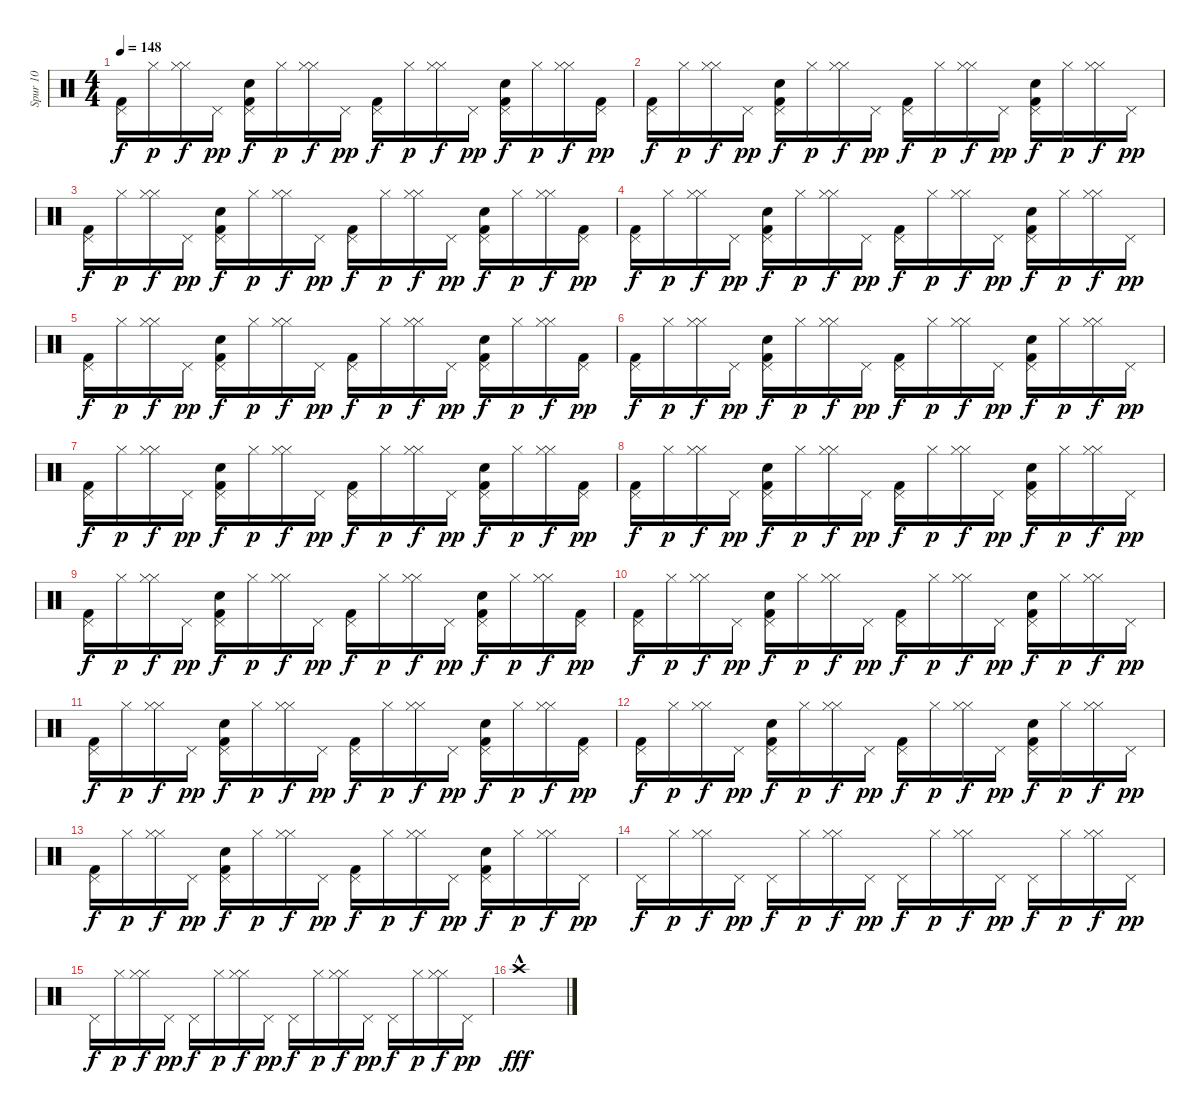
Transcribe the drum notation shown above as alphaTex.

\track ("Spur 10" "Spur 10") {instrument percussion}
\staff {score}
\articulation defaults
\ts (4 4)
\tempo 148
\clef neutral
\ks c
("Pedal Hi-Hat (hit)" "Kick (hit) 2").16{dy f} "Hi-Hat (closed)".16{dy p} ("Hi-Hat (closed)" "Hi-Hat (closed)").16{dy f} "Pedal Hi-Hat (hit)".16{dy pp} ("Pedal Hi-Hat (hit)" "Kick (hit) 2" "Snare (hit) 2").16{dy f} "Hi-Hat (closed)".16{dy p} ("Hi-Hat (closed)" "Hi-Hat (closed)").16{dy f} "Pedal Hi-Hat (hit)".16{dy pp} ("Pedal Hi-Hat (hit)" "Kick (hit) 2").16{dy f} "Hi-Hat (closed)".16{dy p} ("Hi-Hat (closed)" "Hi-Hat (closed)").16{dy f} "Pedal Hi-Hat (hit)".16{dy pp} ("Pedal Hi-Hat (hit)" "Snare (hit) 2" "Kick (hit) 2").16{dy f} "Hi-Hat (closed)".16{dy p} ("Hi-Hat (closed)" "Hi-Hat (closed)").16{dy f} ("Kick (hit) 2" "Pedal Hi-Hat (hit)").16{dy pp} |
("Pedal Hi-Hat (hit)" "Kick (hit) 2").16{dy f} "Hi-Hat (closed)".16{dy p} ("Hi-Hat (closed)" "Hi-Hat (closed)").16{dy f} "Pedal Hi-Hat (hit)".16{dy pp} ("Pedal Hi-Hat (hit)" "Snare (hit) 2" "Kick (hit) 2").16{dy f} "Hi-Hat (closed)".16{dy p} ("Hi-Hat (closed)" "Hi-Hat (closed)").16{dy f} "Pedal Hi-Hat (hit)".16{dy pp} ("Pedal Hi-Hat (hit)" "Kick (hit) 2").16{dy f} "Hi-Hat (closed)".16{dy p} ("Hi-Hat (closed)" "Hi-Hat (closed)").16{dy f} "Pedal Hi-Hat (hit)".16{dy pp} ("Pedal Hi-Hat (hit)" "Snare (hit) 2" "Kick (hit) 2").16{dy f} "Hi-Hat (closed)".16{dy p} ("Hi-Hat (closed)" "Hi-Hat (closed)").16{dy f} "Pedal Hi-Hat (hit)".16{dy pp} |
("Pedal Hi-Hat (hit)" "Kick (hit) 2").16{dy f} "Hi-Hat (closed)".16{dy p} ("Hi-Hat (closed)" "Hi-Hat (closed)").16{dy f} "Pedal Hi-Hat (hit)".16{dy pp} ("Pedal Hi-Hat (hit)" "Kick (hit) 2" "Snare (hit) 2").16{dy f} "Hi-Hat (closed)".16{dy p} ("Hi-Hat (closed)" "Hi-Hat (closed)").16{dy f} "Pedal Hi-Hat (hit)".16{dy pp} ("Pedal Hi-Hat (hit)" "Kick (hit) 2").16{dy f} "Hi-Hat (closed)".16{dy p} ("Hi-Hat (closed)" "Hi-Hat (closed)").16{dy f} "Pedal Hi-Hat (hit)".16{dy pp} ("Pedal Hi-Hat (hit)" "Kick (hit) 2" "Snare (hit) 2").16{dy f} "Hi-Hat (closed)".16{dy p} ("Hi-Hat (closed)" "Hi-Hat (closed)").16{dy f} ("Kick (hit) 2" "Pedal Hi-Hat (hit)").16{dy pp} |
("Pedal Hi-Hat (hit)" "Kick (hit) 2").16{dy f} "Hi-Hat (closed)".16{dy p} ("Hi-Hat (closed)" "Hi-Hat (closed)").16{dy f} "Pedal Hi-Hat (hit)".16{dy pp} ("Pedal Hi-Hat (hit)" "Kick (hit) 2" "Snare (hit) 2").16{dy f} "Hi-Hat (closed)".16{dy p} ("Hi-Hat (closed)" "Hi-Hat (closed)").16{dy f} "Pedal Hi-Hat (hit)".16{dy pp} ("Pedal Hi-Hat (hit)" "Kick (hit) 2").16{dy f} "Hi-Hat (closed)".16{dy p} ("Hi-Hat (closed)" "Hi-Hat (closed)").16{dy f} "Pedal Hi-Hat (hit)".16{dy pp} ("Pedal Hi-Hat (hit)" "Snare (hit) 2" "Kick (hit) 2").16{dy f} "Hi-Hat (closed)".16{dy p} ("Hi-Hat (closed)" "Hi-Hat (closed)").16{dy f} "Pedal Hi-Hat (hit)".16{dy pp} |
("Pedal Hi-Hat (hit)" "Kick (hit) 2").16{dy f} "Hi-Hat (closed)".16{dy p} ("Hi-Hat (closed)" "Hi-Hat (closed)").16{dy f} "Pedal Hi-Hat (hit)".16{dy pp} ("Pedal Hi-Hat (hit)" "Kick (hit) 2" "Snare (hit) 2").16{dy f} "Hi-Hat (closed)".16{dy p} ("Hi-Hat (closed)" "Hi-Hat (closed)").16{dy f} "Pedal Hi-Hat (hit)".16{dy pp} ("Pedal Hi-Hat (hit)" "Kick (hit) 2").16{dy f} "Hi-Hat (closed)".16{dy p} ("Hi-Hat (closed)" "Hi-Hat (closed)").16{dy f} "Pedal Hi-Hat (hit)".16{dy pp} ("Pedal Hi-Hat (hit)" "Kick (hit) 2" "Snare (hit) 2").16{dy f} "Hi-Hat (closed)".16{dy p} ("Hi-Hat (closed)" "Hi-Hat (closed)").16{dy f} ("Kick (hit) 2" "Pedal Hi-Hat (hit)").16{dy pp} |
("Pedal Hi-Hat (hit)" "Kick (hit) 2").16{dy f} "Hi-Hat (closed)".16{dy p} ("Hi-Hat (closed)" "Hi-Hat (closed)").16{dy f} "Pedal Hi-Hat (hit)".16{dy pp} ("Pedal Hi-Hat (hit)" "Kick (hit) 2" "Snare (hit) 2").16{dy f} "Hi-Hat (closed)".16{dy p} ("Hi-Hat (closed)" "Hi-Hat (closed)").16{dy f} "Pedal Hi-Hat (hit)".16{dy pp} ("Pedal Hi-Hat (hit)" "Kick (hit) 2").16{dy f} "Hi-Hat (closed)".16{dy p} ("Hi-Hat (closed)" "Hi-Hat (closed)").16{dy f} "Pedal Hi-Hat (hit)".16{dy pp} ("Pedal Hi-Hat (hit)" "Snare (hit) 2" "Kick (hit) 2").16{dy f} "Hi-Hat (closed)".16{dy p} ("Hi-Hat (closed)" "Hi-Hat (closed)").16{dy f} "Pedal Hi-Hat (hit)".16{dy pp} |
("Pedal Hi-Hat (hit)" "Kick (hit) 2").16{dy f} "Hi-Hat (closed)".16{dy p} ("Hi-Hat (closed)" "Hi-Hat (closed)").16{dy f} "Pedal Hi-Hat (hit)".16{dy pp} ("Pedal Hi-Hat (hit)" "Snare (hit) 2" "Kick (hit) 2").16{dy f} "Hi-Hat (closed)".16{dy p} ("Hi-Hat (closed)" "Hi-Hat (closed)").16{dy f} "Pedal Hi-Hat (hit)".16{dy pp} ("Pedal Hi-Hat (hit)" "Kick (hit) 2").16{dy f} "Hi-Hat (closed)".16{dy p} ("Hi-Hat (closed)" "Hi-Hat (closed)").16{dy f} "Pedal Hi-Hat (hit)".16{dy pp} ("Pedal Hi-Hat (hit)" "Kick (hit) 2" "Snare (hit) 2").16{dy f} "Hi-Hat (closed)".16{dy p} ("Hi-Hat (closed)" "Hi-Hat (closed)").16{dy f} ("Kick (hit) 2" "Pedal Hi-Hat (hit)").16{dy pp} |
("Pedal Hi-Hat (hit)" "Kick (hit) 2").16{dy f} "Hi-Hat (closed)".16{dy p} ("Hi-Hat (closed)" "Hi-Hat (closed)").16{dy f} "Pedal Hi-Hat (hit)".16{dy pp} ("Pedal Hi-Hat (hit)" "Snare (hit) 2" "Kick (hit) 2").16{dy f} "Hi-Hat (closed)".16{dy p} ("Hi-Hat (closed)" "Hi-Hat (closed)").16{dy f} "Pedal Hi-Hat (hit)".16{dy pp} ("Pedal Hi-Hat (hit)" "Kick (hit) 2").16{dy f} "Hi-Hat (closed)".16{dy p} ("Hi-Hat (closed)" "Hi-Hat (closed)").16{dy f} "Pedal Hi-Hat (hit)".16{dy pp} ("Pedal Hi-Hat (hit)" "Kick (hit) 2" "Snare (hit) 2").16{dy f} "Hi-Hat (closed)".16{dy p} ("Hi-Hat (closed)" "Hi-Hat (closed)").16{dy f} "Pedal Hi-Hat (hit)".16{dy pp} |
("Pedal Hi-Hat (hit)" "Kick (hit) 2").16{dy f} "Hi-Hat (closed)".16{dy p} ("Hi-Hat (closed)" "Hi-Hat (closed)").16{dy f} "Pedal Hi-Hat (hit)".16{dy pp} ("Pedal Hi-Hat (hit)" "Snare (hit) 2" "Kick (hit) 2").16{dy f} "Hi-Hat (closed)".16{dy p} ("Hi-Hat (closed)" "Hi-Hat (closed)").16{dy f} "Pedal Hi-Hat (hit)".16{dy pp} ("Pedal Hi-Hat (hit)" "Kick (hit) 2").16{dy f} "Hi-Hat (closed)".16{dy p} ("Hi-Hat (closed)" "Hi-Hat (closed)").16{dy f} "Pedal Hi-Hat (hit)".16{dy pp} ("Pedal Hi-Hat (hit)" "Kick (hit) 2" "Snare (hit) 2").16{dy f} "Hi-Hat (closed)".16{dy p} ("Hi-Hat (closed)" "Hi-Hat (closed)").16{dy f} ("Kick (hit) 2" "Pedal Hi-Hat (hit)").16{dy pp} |
("Pedal Hi-Hat (hit)" "Kick (hit) 2").16{dy f} "Hi-Hat (closed)".16{dy p} ("Hi-Hat (closed)" "Hi-Hat (closed)").16{dy f} "Pedal Hi-Hat (hit)".16{dy pp} ("Pedal Hi-Hat (hit)" "Snare (hit) 2" "Kick (hit) 2").16{dy f} "Hi-Hat (closed)".16{dy p} ("Hi-Hat (closed)" "Hi-Hat (closed)").16{dy f} "Pedal Hi-Hat (hit)".16{dy pp} ("Pedal Hi-Hat (hit)" "Kick (hit) 2").16{dy f} "Hi-Hat (closed)".16{dy p} ("Hi-Hat (closed)" "Hi-Hat (closed)").16{dy f} "Pedal Hi-Hat (hit)".16{dy pp} ("Pedal Hi-Hat (hit)" "Snare (hit) 2" "Kick (hit) 2").16{dy f} "Hi-Hat (closed)".16{dy p} ("Hi-Hat (closed)" "Hi-Hat (closed)").16{dy f} "Pedal Hi-Hat (hit)".16{dy pp} |
("Pedal Hi-Hat (hit)" "Kick (hit) 2").16{dy f} "Hi-Hat (closed)".16{dy p} ("Hi-Hat (closed)" "Hi-Hat (closed)").16{dy f} "Pedal Hi-Hat (hit)".16{dy pp} ("Pedal Hi-Hat (hit)" "Snare (hit) 2" "Kick (hit) 2").16{dy f} "Hi-Hat (closed)".16{dy p} ("Hi-Hat (closed)" "Hi-Hat (closed)").16{dy f} "Pedal Hi-Hat (hit)".16{dy pp} ("Pedal Hi-Hat (hit)" "Kick (hit) 2").16{dy f} "Hi-Hat (closed)".16{dy p} ("Hi-Hat (closed)" "Hi-Hat (closed)").16{dy f} "Pedal Hi-Hat (hit)".16{dy pp} ("Pedal Hi-Hat (hit)" "Snare (hit) 2" "Kick (hit) 2").16{dy f} "Hi-Hat (closed)".16{dy p} ("Hi-Hat (closed)" "Hi-Hat (closed)").16{dy f} ("Kick (hit) 2" "Pedal Hi-Hat (hit)").16{dy pp} |
("Pedal Hi-Hat (hit)" "Kick (hit) 2").16{dy f} "Hi-Hat (closed)".16{dy p} ("Hi-Hat (closed)" "Hi-Hat (closed)").16{dy f} "Pedal Hi-Hat (hit)".16{dy pp} ("Pedal Hi-Hat (hit)" "Kick (hit) 2" "Snare (hit) 2").16{dy f} "Hi-Hat (closed)".16{dy p} ("Hi-Hat (closed)" "Hi-Hat (closed)").16{dy f} "Pedal Hi-Hat (hit)".16{dy pp} ("Pedal Hi-Hat (hit)" "Kick (hit) 2").16{dy f} "Hi-Hat (closed)".16{dy p} ("Hi-Hat (closed)" "Hi-Hat (closed)").16{dy f} "Pedal Hi-Hat (hit)".16{dy pp} ("Pedal Hi-Hat (hit)" "Kick (hit) 2" "Snare (hit) 2").16{dy f} "Hi-Hat (closed)".16{dy p} ("Hi-Hat (closed)" "Hi-Hat (closed)").16{dy f} "Pedal Hi-Hat (hit)".16{dy pp} |
("Pedal Hi-Hat (hit)" "Kick (hit) 2").16{dy f} "Hi-Hat (closed)".16{dy p} ("Hi-Hat (closed)" "Hi-Hat (closed)").16{dy f} "Pedal Hi-Hat (hit)".16{dy pp} ("Pedal Hi-Hat (hit)" "Snare (hit) 2" "Kick (hit) 2").16{dy f} "Hi-Hat (closed)".16{dy p} ("Hi-Hat (closed)" "Hi-Hat (closed)").16{dy f} "Pedal Hi-Hat (hit)".16{dy pp} ("Pedal Hi-Hat (hit)" "Kick (hit) 2").16{dy f} "Hi-Hat (closed)".16{dy p} ("Hi-Hat (closed)" "Hi-Hat (closed)").16{dy f} "Pedal Hi-Hat (hit)".16{dy pp} ("Pedal Hi-Hat (hit)" "Snare (hit) 2" "Kick (hit) 2").16{dy f} "Hi-Hat (closed)".16{dy p} ("Hi-Hat (closed)" "Hi-Hat (closed)").16{dy f} "Pedal Hi-Hat (hit)".16{dy pp} |
"Pedal Hi-Hat (hit)".16{dy f} "Hi-Hat (closed)".16{dy p} ("Hi-Hat (closed)" "Hi-Hat (closed)").16{dy f} "Pedal Hi-Hat (hit)".16{dy pp} "Pedal Hi-Hat (hit)".16{dy f} "Hi-Hat (closed)".16{dy p} ("Hi-Hat (closed)" "Hi-Hat (closed)").16{dy f} "Pedal Hi-Hat (hit)".16{dy pp} "Pedal Hi-Hat (hit)".16{dy f} "Hi-Hat (closed)".16{dy p} ("Hi-Hat (closed)" "Hi-Hat (closed)").16{dy f} "Pedal Hi-Hat (hit)".16{dy pp} "Pedal Hi-Hat (hit)".16{dy f} "Hi-Hat (closed)".16{dy p} ("Hi-Hat (closed)" "Hi-Hat (closed)").16{dy f} "Pedal Hi-Hat (hit)".16{dy pp} |
"Pedal Hi-Hat (hit)".16{dy f} "Hi-Hat (closed)".16{dy p} ("Hi-Hat (closed)" "Hi-Hat (closed)").16{dy f} "Pedal Hi-Hat (hit)".16{dy pp} "Pedal Hi-Hat (hit)".16{dy f} "Hi-Hat (closed)".16{dy p} ("Hi-Hat (closed)" "Hi-Hat (closed)").16{dy f} "Pedal Hi-Hat (hit)".16{dy pp} "Pedal Hi-Hat (hit)".16{dy f} "Hi-Hat (closed)".16{dy p} ("Hi-Hat (closed)" "Hi-Hat (closed)").16{dy f} "Pedal Hi-Hat (hit)".16{dy pp} "Pedal Hi-Hat (hit)".16{dy f} "Hi-Hat (closed)".16{dy p} ("Hi-Hat (closed)" "Hi-Hat (closed)").16{dy f} "Pedal Hi-Hat (hit)".16{dy pp} |
"Crash high (hit)"{hac}.1{dy fff}
